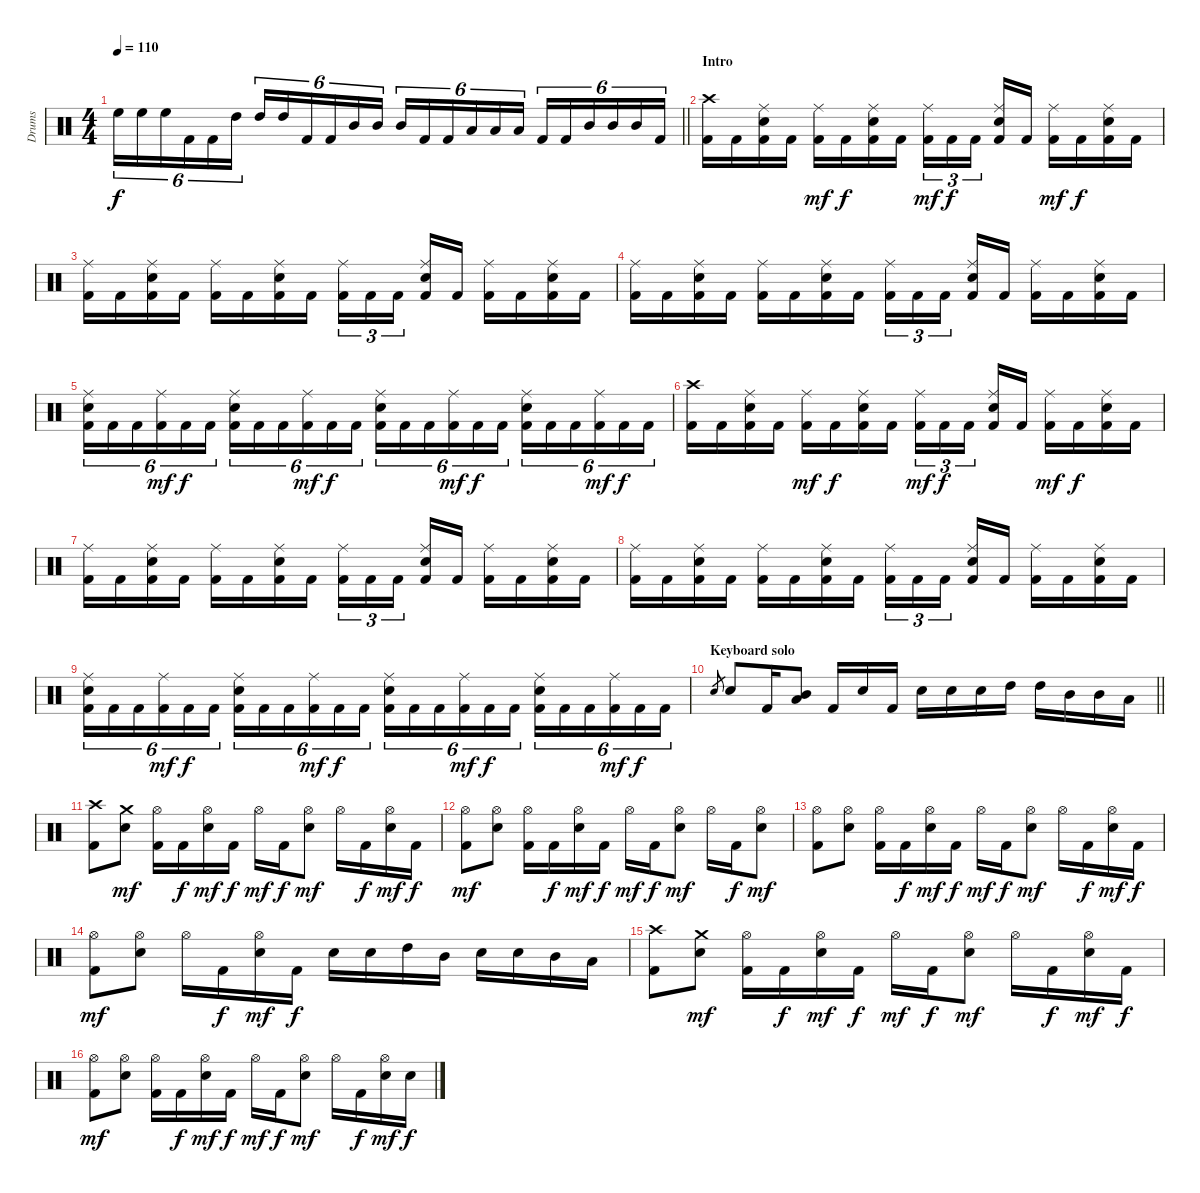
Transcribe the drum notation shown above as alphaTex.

\track ("Drums" "Drums") {instrument percussion}
\staff {score}
\articulation defaults
\ts (4 4)
\tempo 110
\clef neutral
\barLineRight lightlight
\ks c "High Floor Tom (hit)".16{tu (6 4) dy f} "High Floor Tom (hit)".16{tu (6 4)} "High Floor Tom (hit)".16{tu (6 4)} "Kick (hit) 2".16{tu (6 4)} "Kick (hit) 2".16{tu (6 4)} "High Tom (hit)".16{tu (6 4)} "High Tom (hit)".16{tu (6 4)} "High Tom (hit)".16{tu (6 4)} "Kick (hit) 2".16{tu (6 4)} "Kick (hit) 2".16{tu (6 4)} "Mid Tom (hit)".16{tu (6 4)} "Mid Tom (hit)".16{tu (6 4)} "Mid Tom (hit)".16{tu (6 4)} "Kick (hit) 2".16{tu (6 4)} "Kick (hit) 2".16{tu (6 4)} "Low Tom (hit)".16{tu (6 4)} "Low Tom (hit)".16{tu (6 4)} "Low Tom (hit)".16{tu (6 4)} "Kick (hit) 2".16{tu (6 4)} "Kick (hit) 2".16{tu (6 4)} "Mid Tom (hit)".16{tu (6 4)} "Mid Tom (hit)".16{tu (6 4)} "Mid Tom (hit)".16{tu (6 4)} "Kick (hit) 2".16{tu (6 4)}
|
\section ("" "Intro")
("Crash high (hit)" "Kick (hit) 2").16 "Kick (hit) 2".16 ("Ride (middle)" "Electric Snare (hit)" "Kick (hit) 2").16 "Kick (hit) 2".16 ("Ride (middle)" "Kick (hit) 2").16{dy mf} "Kick (hit) 2".16{dy f} ("Ride (middle)" "Electric Snare (hit)" "Kick (hit) 2").16 "Kick (hit) 2".16 ("Ride (middle)" "Kick (hit) 2").16{tu (3 2) dy mf} "Kick (hit) 2".16{tu (3 2) dy f} "Kick (hit) 2".16{tu (3 2)} ("Ride (middle)" "Electric Snare (hit)" "Kick (hit) 2").16 "Kick (hit) 2".16 ("Ride (middle)" "Kick (hit) 2").16{dy mf} "Kick (hit) 2".16{dy f} ("Ride (middle)" "Electric Snare (hit)" "Kick (hit) 2").16 "Kick (hit) 2".16 |
("Ride (middle)" "Kick (hit) 2").16 "Kick (hit) 2".16 ("Ride (middle)" "Electric Snare (hit)" "Kick (hit) 2").16 "Kick (hit) 2".16 ("Ride (middle)" "Kick (hit) 2").16 "Kick (hit) 2".16 ("Ride (middle)" "Electric Snare (hit)" "Kick (hit) 2").16 "Kick (hit) 2".16 ("Ride (middle)" "Kick (hit) 2").16{tu (3 2)} "Kick (hit) 2".16{tu (3 2)} "Kick (hit) 2".16{tu (3 2)} ("Ride (middle)" "Electric Snare (hit)" "Kick (hit) 2").16 "Kick (hit) 2".16 ("Ride (middle)" "Kick (hit) 2").16 "Kick (hit) 2".16 ("Ride (middle)" "Electric Snare (hit)" "Kick (hit) 2").16 "Kick (hit) 2".16 |
("Ride (middle)" "Kick (hit) 2").16 "Kick (hit) 2".16 ("Ride (middle)" "Electric Snare (hit)" "Kick (hit) 2").16 "Kick (hit) 2".16 ("Ride (middle)" "Kick (hit) 2").16 "Kick (hit) 2".16 ("Ride (middle)" "Electric Snare (hit)" "Kick (hit) 2").16 "Kick (hit) 2".16 ("Ride (middle)" "Kick (hit) 2").16{tu (3 2)} "Kick (hit) 2".16{tu (3 2)} "Kick (hit) 2".16{tu (3 2)} ("Ride (middle)" "Electric Snare (hit)" "Kick (hit) 2").16 "Kick (hit) 2".16 ("Ride (middle)" "Kick (hit) 2").16 "Kick (hit) 2".16 ("Ride (middle)" "Electric Snare (hit)" "Kick (hit) 2").16 "Kick (hit) 2".16 |
("Ride (middle)" "Electric Snare (hit)" "Kick (hit) 2").16{tu (6 4)} "Kick (hit) 2".16{tu (6 4)} "Kick (hit) 2".16{tu (6 4)} ("Ride (middle)" "Kick (hit) 2").16{tu (6 4) dy mf} "Kick (hit) 2".16{tu (6 4) dy f} "Kick (hit) 2".16{tu (6 4)} ("Ride (middle)" "Electric Snare (hit)" "Kick (hit) 2").16{tu (6 4)} "Kick (hit) 2".16{tu (6 4)} "Kick (hit) 2".16{tu (6 4)} ("Ride (middle)" "Kick (hit) 2").16{tu (6 4) dy mf} "Kick (hit) 2".16{tu (6 4) dy f} "Kick (hit) 2".16{tu (6 4)} ("Ride (middle)" "Electric Snare (hit)" "Kick (hit) 2").16{tu (6 4)} "Kick (hit) 2".16{tu (6 4)} "Kick (hit) 2".16{tu (6 4)} ("Ride (middle)" "Kick (hit) 2").16{tu (6 4) dy mf} "Kick (hit) 2".16{tu (6 4) dy f} "Kick (hit) 2".16{tu (6 4)} ("Ride (middle)" "Electric Snare (hit)" "Kick (hit) 2").16{tu (6 4)} "Kick (hit) 2".16{tu (6 4)} "Kick (hit) 2".16{tu (6 4)} ("Ride (middle)" "Kick (hit) 2").16{tu (6 4) dy mf} "Kick (hit) 2".16{tu (6 4) dy f} "Kick (hit) 2".16{tu (6 4)} |
("Crash high (hit)" "Kick (hit) 2").16 "Kick (hit) 2".16 ("Ride (middle)" "Electric Snare (hit)" "Kick (hit) 2").16 "Kick (hit) 2".16 ("Ride (middle)" "Kick (hit) 2").16{dy mf} "Kick (hit) 2".16{dy f} ("Ride (middle)" "Electric Snare (hit)" "Kick (hit) 2").16 "Kick (hit) 2".16 ("Ride (middle)" "Kick (hit) 2").16{tu (3 2) dy mf} "Kick (hit) 2".16{tu (3 2) dy f} "Kick (hit) 2".16{tu (3 2)} ("Ride (middle)" "Electric Snare (hit)" "Kick (hit) 2").16 "Kick (hit) 2".16 ("Ride (middle)" "Kick (hit) 2").16{dy mf} "Kick (hit) 2".16{dy f} ("Ride (middle)" "Electric Snare (hit)" "Kick (hit) 2").16 "Kick (hit) 2".16 |
("Ride (middle)" "Kick (hit) 2").16 "Kick (hit) 2".16 ("Ride (middle)" "Electric Snare (hit)" "Kick (hit) 2").16 "Kick (hit) 2".16 ("Ride (middle)" "Kick (hit) 2").16 "Kick (hit) 2".16 ("Ride (middle)" "Electric Snare (hit)" "Kick (hit) 2").16 "Kick (hit) 2".16 ("Ride (middle)" "Kick (hit) 2").16{tu (3 2)} "Kick (hit) 2".16{tu (3 2)} "Kick (hit) 2".16{tu (3 2)} ("Ride (middle)" "Electric Snare (hit)" "Kick (hit) 2").16 "Kick (hit) 2".16 ("Ride (middle)" "Kick (hit) 2").16 "Kick (hit) 2".16 ("Ride (middle)" "Electric Snare (hit)" "Kick (hit) 2").16 "Kick (hit) 2".16 |
("Ride (middle)" "Kick (hit) 2").16 "Kick (hit) 2".16 ("Ride (middle)" "Electric Snare (hit)" "Kick (hit) 2").16 "Kick (hit) 2".16 ("Ride (middle)" "Kick (hit) 2").16 "Kick (hit) 2".16 ("Ride (middle)" "Electric Snare (hit)" "Kick (hit) 2").16 "Kick (hit) 2".16 ("Ride (middle)" "Kick (hit) 2").16{tu (3 2)} "Kick (hit) 2".16{tu (3 2)} "Kick (hit) 2".16{tu (3 2)} ("Ride (middle)" "Electric Snare (hit)" "Kick (hit) 2").16 "Kick (hit) 2".16 ("Ride (middle)" "Kick (hit) 2").16 "Kick (hit) 2".16 ("Ride (middle)" "Electric Snare (hit)" "Kick (hit) 2").16 "Kick (hit) 2".16 |
("Ride (middle)" "Electric Snare (hit)" "Kick (hit) 2").16{tu (6 4)} "Kick (hit) 2".16{tu (6 4)} "Kick (hit) 2".16{tu (6 4)} ("Ride (middle)" "Kick (hit) 2").16{tu (6 4) dy mf} "Kick (hit) 2".16{tu (6 4) dy f} "Kick (hit) 2".16{tu (6 4)} ("Ride (middle)" "Electric Snare (hit)" "Kick (hit) 2").16{tu (6 4)} "Kick (hit) 2".16{tu (6 4)} "Kick (hit) 2".16{tu (6 4)} ("Ride (middle)" "Kick (hit) 2").16{tu (6 4) dy mf} "Kick (hit) 2".16{tu (6 4) dy f} "Kick (hit) 2".16{tu (6 4)} ("Ride (middle)" "Electric Snare (hit)" "Kick (hit) 2").16{tu (6 4)} "Kick (hit) 2".16{tu (6 4)} "Kick (hit) 2".16{tu (6 4)} ("Ride (middle)" "Kick (hit) 2").16{tu (6 4) dy mf} "Kick (hit) 2".16{tu (6 4) dy f} "Kick (hit) 2".16{tu (6 4)} ("Ride (middle)" "Electric Snare (hit)" "Kick (hit) 2").16{tu (6 4)} "Kick (hit) 2".16{tu (6 4)} "Kick (hit) 2".16{tu (6 4)} ("Ride (middle)" "Kick (hit) 2").16{tu (6 4) dy mf} "Kick (hit) 2".16{tu (6 4) dy f} "Kick (hit) 2".16{tu (6 4)} |
\section ("" "Keyboard solo")
\barLineRight lightlight "Electric Snare (hit)".8{gr} "Electric Snare (hit)".8 "Kick (hit) 2".16
("Mid Tom (hit)" "Low Tom (hit)").8 "Kick (hit) 2".16 "Electric Snare (hit)".16 "Kick (hit) 2".16 "Electric Snare (hit)".16 "Electric Snare (hit)".16 "Electric Snare (hit)".16 "High Tom (hit)".16 "High Tom (hit)".16 "Mid Tom (hit)".16 "Mid Tom (hit)".16 "Low Tom (hit)".16 |
("Crash high (hit)" "Kick (hit) 2").8 ("Crash medium (hit)" "Electric Snare (hit)").8{dy mf} ("Hi-Hat (open)" "Kick (hit) 2").16 "Kick (hit) 2".16{dy f} ("Hi-Hat (open)" "Electric Snare (hit)").16{dy mf} "Kick (hit) 2".16{dy f} "Hi-Hat (open)".16{dy mf} "Kick (hit) 2".16{dy f} ("Hi-Hat (open)" "Electric Snare (hit)").8{dy mf} "Hi-Hat (open)".16 "Kick (hit) 2".16{dy f} ("Hi-Hat (open)" "Electric Snare (hit)").16{dy mf} "Kick (hit) 2".16{dy f} |
("Hi-Hat (open)" "Kick (hit) 2").8{dy mf} ("Hi-Hat (open)" "Electric Snare (hit)").8 ("Hi-Hat (open)" "Kick (hit) 2").16 "Kick (hit) 2".16{dy f} ("Hi-Hat (open)" "Electric Snare (hit)").16{dy mf} "Kick (hit) 2".16{dy f} "Hi-Hat (open)".16{dy mf} "Kick (hit) 2".16{dy f} ("Hi-Hat (open)" "Electric Snare (hit)").8{dy mf} "Hi-Hat (open)".16 "Kick (hit) 2".16{dy f} ("Hi-Hat (open)" "Electric Snare (hit)").8{dy mf} |
("Hi-Hat (open)" "Kick (hit) 2").8 ("Hi-Hat (open)" "Electric Snare (hit)").8 ("Hi-Hat (open)" "Kick (hit) 2").16 "Kick (hit) 2".16{dy f} ("Hi-Hat (open)" "Electric Snare (hit)").16{dy mf} "Kick (hit) 2".16{dy f} "Hi-Hat (open)".16{dy mf} "Kick (hit) 2".16{dy f} ("Hi-Hat (open)" "Electric Snare (hit)").8{dy mf} "Hi-Hat (open)".16 "Kick (hit) 2".16{dy f} ("Hi-Hat (open)" "Electric Snare (hit)").16{dy mf} "Kick (hit) 2".16{dy f} |
("Hi-Hat (open)" "Kick (hit) 2").8{dy mf} ("Hi-Hat (open)" "Electric Snare (hit)").8 "Hi-Hat (open)".16 "Kick (hit) 2".16{dy f} ("Hi-Hat (open)" "Electric Snare (hit)").16{dy mf} "Kick (hit) 2".16{dy f} "Electric Snare (hit)".16 "Electric Snare (hit)".16 "High Tom (hit)".16 "Mid Tom (hit)".16 "Electric Snare (hit)".16 "Electric Snare (hit)".16 "Mid Tom (hit)".16 "Low Tom (hit)".16 |
("Crash high (hit)" "Kick (hit) 2").8 ("Crash medium (hit)" "Electric Snare (hit)").8{dy mf} ("Hi-Hat (open)" "Kick (hit) 2").16 "Kick (hit) 2".16{dy f} ("Hi-Hat (open)" "Electric Snare (hit)").16{dy mf} "Kick (hit) 2".16{dy f} "Hi-Hat (open)".16{dy mf} "Kick (hit) 2".16{dy f} ("Hi-Hat (open)" "Electric Snare (hit)").8{dy mf} "Hi-Hat (open)".16 "Kick (hit) 2".16{dy f} ("Hi-Hat (open)" "Electric Snare (hit)").16{dy mf} "Kick (hit) 2".16{dy f} |
("Hi-Hat (open)" "Kick (hit) 2").8{dy mf} ("Hi-Hat (open)" "Electric Snare (hit)").8 ("Hi-Hat (open)" "Kick (hit) 2").16 "Kick (hit) 2".16{dy f} ("Hi-Hat (open)" "Electric Snare (hit)").16{dy mf} "Kick (hit) 2".16{dy f} "Hi-Hat (open)".16{dy mf} "Kick (hit) 2".16{dy f} ("Hi-Hat (open)" "Electric Snare (hit)").8{dy mf} "Hi-Hat (open)".16 "Kick (hit) 2".16{dy f} ("Hi-Hat (open)" "Electric Snare (hit)").16{dy mf} "Electric Snare (hit)".16{dy f}
